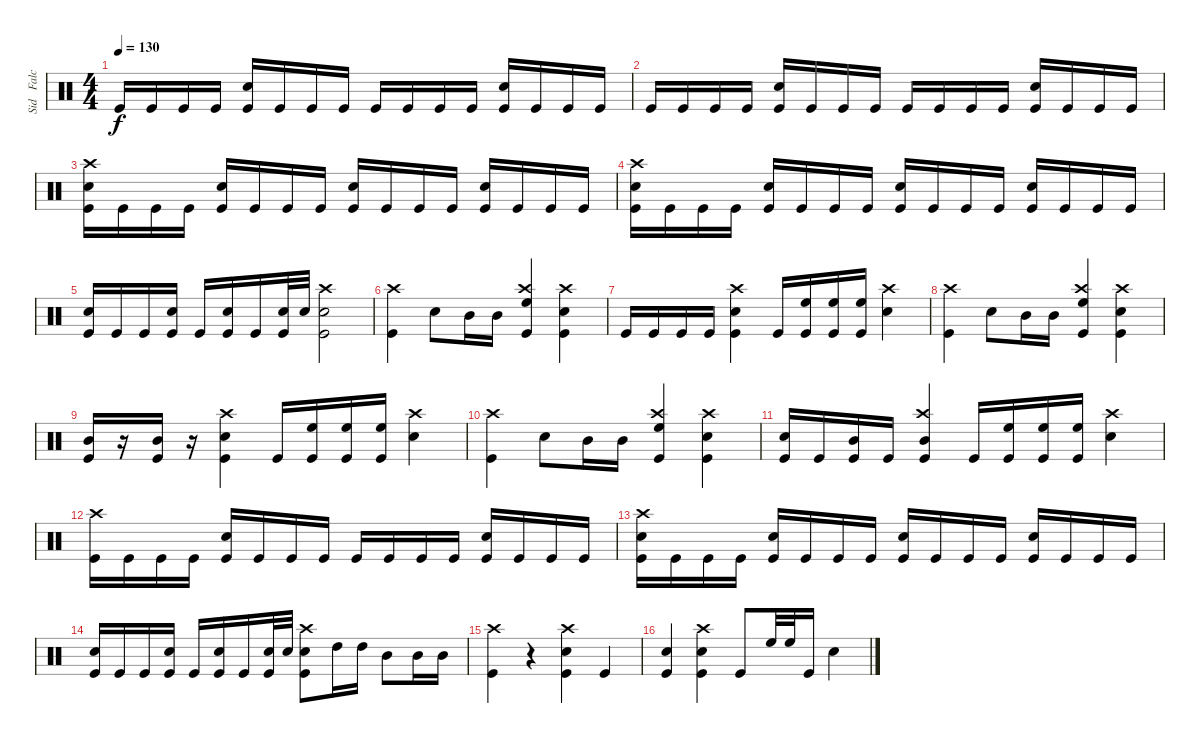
\track ("Sid   Falck  - Drums" "Sid   Falc") {instrument percussion}
\staff {score}
\articulation defaults
\ts (4 4)
\tempo 130
\clef neutral
\ks c "Kick (hit)".16{dy f} "Kick (hit)".16 "Kick (hit)".16 "Kick (hit)".16
("Electric Snare (hit)" "Kick (hit)").16 "Kick (hit)".16 "Kick (hit)".16 "Kick (hit)".16 "Kick (hit)".16 "Kick (hit)".16 "Kick (hit)".16 "Kick (hit)".16 ("Electric Snare (hit)" "Kick (hit)").16 "Kick (hit)".16 "Kick (hit)".16 "Kick (hit)".16 |
"Kick (hit)".16 "Kick (hit)".16 "Kick (hit)".16 "Kick (hit)".16 ("Electric Snare (hit)" "Kick (hit)").16 "Kick (hit)".16 "Kick (hit)".16 "Kick (hit)".16 "Kick (hit)".16 "Kick (hit)".16 "Kick (hit)".16 "Kick (hit)".16 ("Electric Snare (hit)" "Kick (hit)").16 "Kick (hit)".16 "Kick (hit)".16 "Kick (hit)".16 |
("Crash high (hit)" "Electric Snare (hit)" "Kick (hit)").16 "Kick (hit)".16 "Kick (hit)".16 "Kick (hit)".16 ("Electric Snare (hit)" "Kick (hit)").16 "Kick (hit)".16 "Kick (hit)".16 "Kick (hit)".16 ("Electric Snare (hit)" "Kick (hit)").16 "Kick (hit)".16 "Kick (hit)".16 "Kick (hit)".16 ("Electric Snare (hit)" "Kick (hit)").16 "Kick (hit)".16 "Kick (hit)".16 "Kick (hit)".16 |
("Crash high (hit)" "Electric Snare (hit)" "Kick (hit)").16 "Kick (hit)".16 "Kick (hit)".16 "Kick (hit)".16 ("Electric Snare (hit)" "Kick (hit)").16 "Kick (hit)".16 "Kick (hit)".16 "Kick (hit)".16 ("Electric Snare (hit)" "Kick (hit)").16 "Kick (hit)".16 "Kick (hit)".16 "Kick (hit)".16 ("Electric Snare (hit)" "Kick (hit)").16 "Kick (hit)".16 "Kick (hit)".16 "Kick (hit)".16 |
("Electric Snare (hit)" "Kick (hit)").16 "Kick (hit)".16 "Kick (hit)".16 ("Electric Snare (hit)" "Kick (hit)").16 "Kick (hit)".16 ("Electric Snare (hit)" "Kick (hit)").16 "Kick (hit)".16 ("Electric Snare (hit)" "Kick (hit)").32 "Electric Snare (hit)".32 ("Crash high (hit)" "Electric Snare (hit)" "Kick (hit)").2 |
("Crash high (hit)" "Kick (hit)").4 "Electric Snare (hit)".8 "Mid Tom (hit)".16 "Mid Tom (hit)".16 ("Crash high (hit)" "High Floor Tom (hit)" "Kick (hit)").4 ("Crash high (hit)" "Electric Snare (hit)" "Kick (hit)").4 |
"Kick (hit)".16 "Kick (hit)".16 "Kick (hit)".16 "Kick (hit)".16 ("Crash high (hit)" "Electric Snare (hit)" "Kick (hit)").4 "Kick (hit)".16 ("High Floor Tom (hit)" "Kick (hit)").16 ("High Floor Tom (hit)" "Kick (hit)").16 ("High Floor Tom (hit)" "Kick (hit)").16 ("Crash high (hit)" "Electric Snare (hit)").4 |
("Crash high (hit)" "Kick (hit)").4 "Electric Snare (hit)".8 "Mid Tom (hit)".16 "Mid Tom (hit)".16 ("Crash high (hit)" "High Floor Tom (hit)" "Kick (hit)").4 ("Crash high (hit)" "Electric Snare (hit)" "Kick (hit)").4 |
("Mid Tom (hit)" "Kick (hit)").16 r.16 ("Mid Tom (hit)" "Kick (hit)").16 r.16 ("Crash high (hit)" "Electric Snare (hit)" "Kick (hit)").4 "Kick (hit)".16 ("High Floor Tom (hit)" "Kick (hit)").16 ("High Floor Tom (hit)" "Kick (hit)").16 ("High Floor Tom (hit)" "Kick (hit)").16 ("Crash high (hit)" "Electric Snare (hit)").4 |
("Crash high (hit)" "Kick (hit)").4 "Electric Snare (hit)".8 "Mid Tom (hit)".16 "Mid Tom (hit)".16 ("Crash high (hit)" "High Floor Tom (hit)" "Kick (hit)").4 ("Crash high (hit)" "Electric Snare (hit)" "Kick (hit)").4 |
("Electric Snare (hit)" "Kick (hit)").16 "Kick (hit)".16 ("Mid Tom (hit)" "Kick (hit)").16 "Kick (hit)".16 ("Crash high (hit)" "Mid Tom (hit)" "Kick (hit)").4 "Kick (hit)".16 ("High Floor Tom (hit)" "Kick (hit)").16 ("High Floor Tom (hit)" "Kick (hit)").16 ("High Floor Tom (hit)" "Kick (hit)").16 ("Crash high (hit)" "Electric Snare (hit)").4 |
("Crash high (hit)" "Kick (hit)").16 "Kick (hit)".16 "Kick (hit)".16 "Kick (hit)".16 ("Electric Snare (hit)" "Kick (hit)").16 "Kick (hit)".16 "Kick (hit)".16 "Kick (hit)".16 "Kick (hit)".16 "Kick (hit)".16 "Kick (hit)".16 "Kick (hit)".16 ("Electric Snare (hit)" "Kick (hit)").16 "Kick (hit)".16 "Kick (hit)".16 "Kick (hit)".16 |
("Crash high (hit)" "Electric Snare (hit)" "Kick (hit)").16 "Kick (hit)".16 "Kick (hit)".16 "Kick (hit)".16 ("Electric Snare (hit)" "Kick (hit)").16 "Kick (hit)".16 "Kick (hit)".16 "Kick (hit)".16 ("Electric Snare (hit)" "Kick (hit)").16 "Kick (hit)".16 "Kick (hit)".16 "Kick (hit)".16 ("Electric Snare (hit)" "Kick (hit)").16 "Kick (hit)".16 "Kick (hit)".16 "Kick (hit)".16 |
("Electric Snare (hit)" "Kick (hit)").16 "Kick (hit)".16 "Kick (hit)".16 ("Electric Snare (hit)" "Kick (hit)").16 "Kick (hit)".16 ("Electric Snare (hit)" "Kick (hit)").16 "Kick (hit)".16 ("Electric Snare (hit)" "Kick (hit)").32 "Electric Snare (hit)".32 ("Crash high (hit)" "Electric Snare (hit)" "Kick (hit)").8 "High Tom (hit)".16 "High Tom (hit)".16 "Mid Tom (hit)".8 "Mid Tom (hit)".16 "Mid Tom (hit)".16 |
("Crash high (hit)" "Kick (hit)").4 r.4 ("Crash high (hit)" "Electric Snare (hit)" "Kick (hit)").4 "Kick (hit)".4 |
("Electric Snare (hit)" "Kick (hit)").4 ("Electric Snare (hit)" "Crash high (hit)" "Kick (hit)").4 "Kick (hit)".8 "High Floor Tom (hit)".32 "High Floor Tom (hit)".32 "Kick (hit)".16 "Electric Snare (hit)".4
